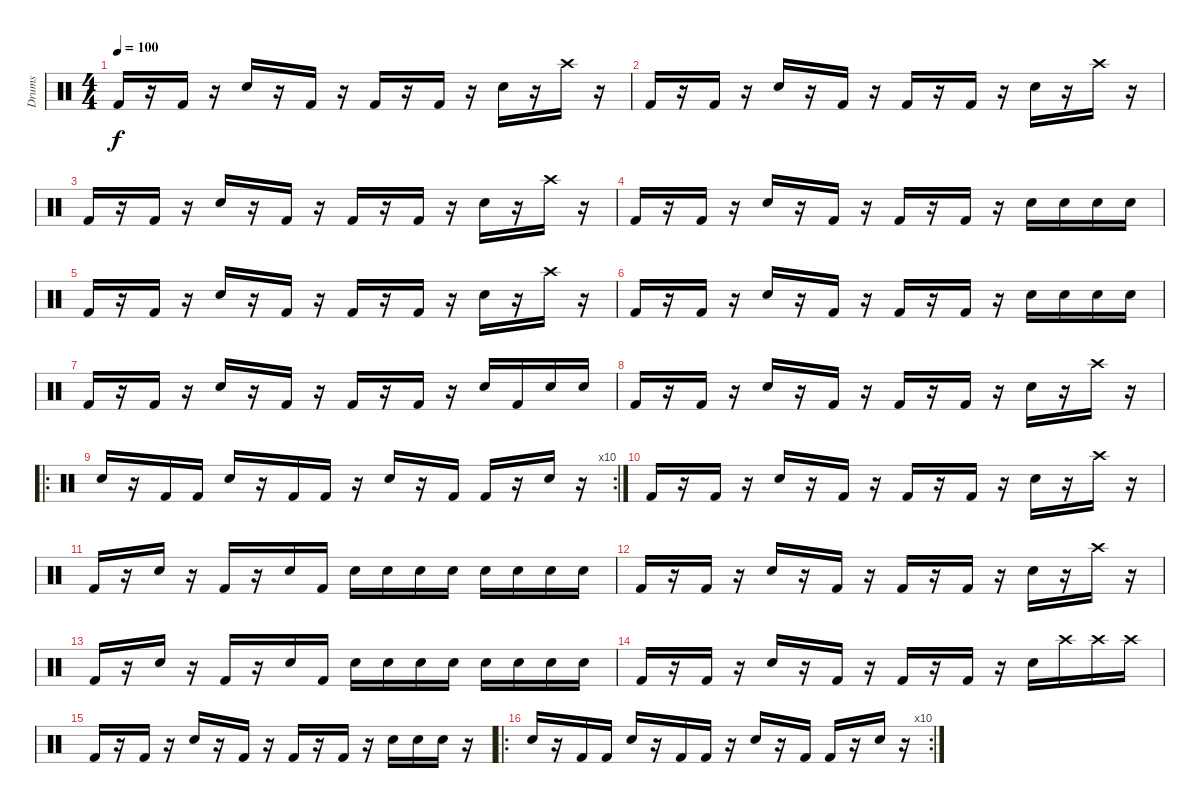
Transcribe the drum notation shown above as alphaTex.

\track ("Drums" "Drums") {instrument percussion}
\staff {score}
\articulation defaults
\ts (4 4)
\tempo 100
\clef neutral
\ks c "Kick (hit) 2".16{dy f}
r.16 "Kick (hit) 2".16 r.16 "Snare (hit) 2".16 r.16 "Kick (hit) 2".16 r.16 "Kick (hit) 2".16 r.16 "Kick (hit) 2".16 r.16 "Snare (hit) 2".16 r.16 "Crash high (hit)".16 r.16 |
"Kick (hit) 2".16 r.16 "Kick (hit) 2".16 r.16 "Snare (hit) 2".16 r.16 "Kick (hit) 2".16 r.16 "Kick (hit) 2".16 r.16 "Kick (hit) 2".16 r.16 "Snare (hit) 2".16 r.16 "Crash high (hit)".16 r.16 |
"Kick (hit) 2".16 r.16 "Kick (hit) 2".16 r.16 "Snare (hit) 2".16 r.16 "Kick (hit) 2".16 r.16 "Kick (hit) 2".16 r.16 "Kick (hit) 2".16 r.16 "Snare (hit) 2".16 r.16 "Crash high (hit)".16 r.16 |
"Kick (hit) 2".16 r.16 "Kick (hit) 2".16 r.16 "Snare (hit) 2".16 r.16 "Kick (hit) 2".16 r.16 "Kick (hit) 2".16 r.16 "Kick (hit) 2".16 r.16 "Snare (hit) 2".16 "Snare (hit) 2".16 "Snare (hit) 2".16 "Snare (hit) 2".16 |
"Kick (hit) 2".16 r.16 "Kick (hit) 2".16 r.16 "Snare (hit) 2".16 r.16 "Kick (hit) 2".16 r.16 "Kick (hit) 2".16 r.16 "Kick (hit) 2".16 r.16 "Snare (hit) 2".16 r.16 "Crash high (hit)".16 r.16 |
"Kick (hit) 2".16 r.16 "Kick (hit) 2".16 r.16 "Snare (hit) 2".16 r.16 "Kick (hit) 2".16 r.16 "Kick (hit) 2".16 r.16 "Kick (hit) 2".16 r.16 "Snare (hit) 2".16 "Snare (hit) 2".16 "Snare (hit) 2".16 "Snare (hit) 2".16 |
"Kick (hit) 2".16 r.16 "Kick (hit) 2".16 r.16 "Snare (hit) 2".16 r.16 "Kick (hit) 2".16 r.16 "Kick (hit) 2".16 r.16 "Kick (hit) 2".16 r.16 "Snare (hit) 2".16 "Kick (hit) 2".16 "Snare (hit) 2".16 "Snare (hit) 2".16 |
"Kick (hit) 2".16 r.16 "Kick (hit) 2".16 r.16 "Snare (hit) 2".16 r.16 "Kick (hit) 2".16 r.16 "Kick (hit) 2".16 r.16 "Kick (hit) 2".16 r.16 "Snare (hit) 2".16 r.16 "Crash high (hit)".16 r.16 |
\ro
\rc 10 "Snare (hit) 2".16
r.16 "Kick (hit) 2".16 "Kick (hit) 2".16 "Snare (hit) 2".16 r.16 "Kick (hit) 2".16 "Kick (hit) 2".16 r.16 "Snare (hit) 2".16 r.16 "Kick (hit) 2".16 "Kick (hit) 2".16 r.16 "Snare (hit) 2".16 r.16 |
"Kick (hit) 2".16 r.16 "Kick (hit) 2".16 r.16 "Snare (hit) 2".16 r.16 "Kick (hit) 2".16 r.16 "Kick (hit) 2".16 r.16 "Kick (hit) 2".16 r.16 "Snare (hit) 2".16 r.16 "Crash high (hit)".16 r.16 |
"Kick (hit) 2".16 r.16 "Snare (hit) 2".16 r.16 "Kick (hit) 2".16 r.16 "Snare (hit) 2".16 "Kick (hit) 2".16 "Snare (hit) 2".16 "Snare (hit) 2".16 "Snare (hit) 2".16 "Snare (hit) 2".16 "Snare (hit) 2".16 "Snare (hit) 2".16 "Snare (hit) 2".16 "Snare (hit) 2".16 |
"Kick (hit) 2".16 r.16 "Kick (hit) 2".16 r.16 "Snare (hit) 2".16 r.16 "Kick (hit) 2".16 r.16 "Kick (hit) 2".16 r.16 "Kick (hit) 2".16 r.16 "Snare (hit) 2".16 r.16 "Crash high (hit)".16 r.16 |
"Kick (hit) 2".16 r.16 "Snare (hit) 2".16 r.16 "Kick (hit) 2".16 r.16 "Snare (hit) 2".16 "Kick (hit) 2".16 "Snare (hit) 2".16 "Snare (hit) 2".16 "Snare (hit) 2".16 "Snare (hit) 2".16 "Snare (hit) 2".16 "Snare (hit) 2".16 "Snare (hit) 2".16 "Snare (hit) 2".16 |
"Kick (hit) 2".16 r.16 "Kick (hit) 2".16 r.16 "Snare (hit) 2".16 r.16 "Kick (hit) 2".16 r.16 "Kick (hit) 2".16 r.16 "Kick (hit) 2".16 r.16 "Snare (hit) 2".16 "Crash high (hit)".16 "Crash high (hit)".16 "Crash high (hit)".16 |
"Kick (hit) 2".16 r.16 "Kick (hit) 2".16 r.16 "Snare (hit) 2".16 r.16 "Kick (hit) 2".16 r.16 "Kick (hit) 2".16 r.16 "Kick (hit) 2".16 r.16 "Snare (hit) 2".16 "Snare (hit) 2".16 "Snare (hit) 2".16 r.16 |
\ro
\rc 10 "Snare (hit) 2".16
r.16 "Kick (hit) 2".16 "Kick (hit) 2".16 "Snare (hit) 2".16 r.16 "Kick (hit) 2".16 "Kick (hit) 2".16 r.16 "Snare (hit) 2".16 r.16 "Kick (hit) 2".16 "Kick (hit) 2".16 r.16 "Snare (hit) 2".16 r.16
